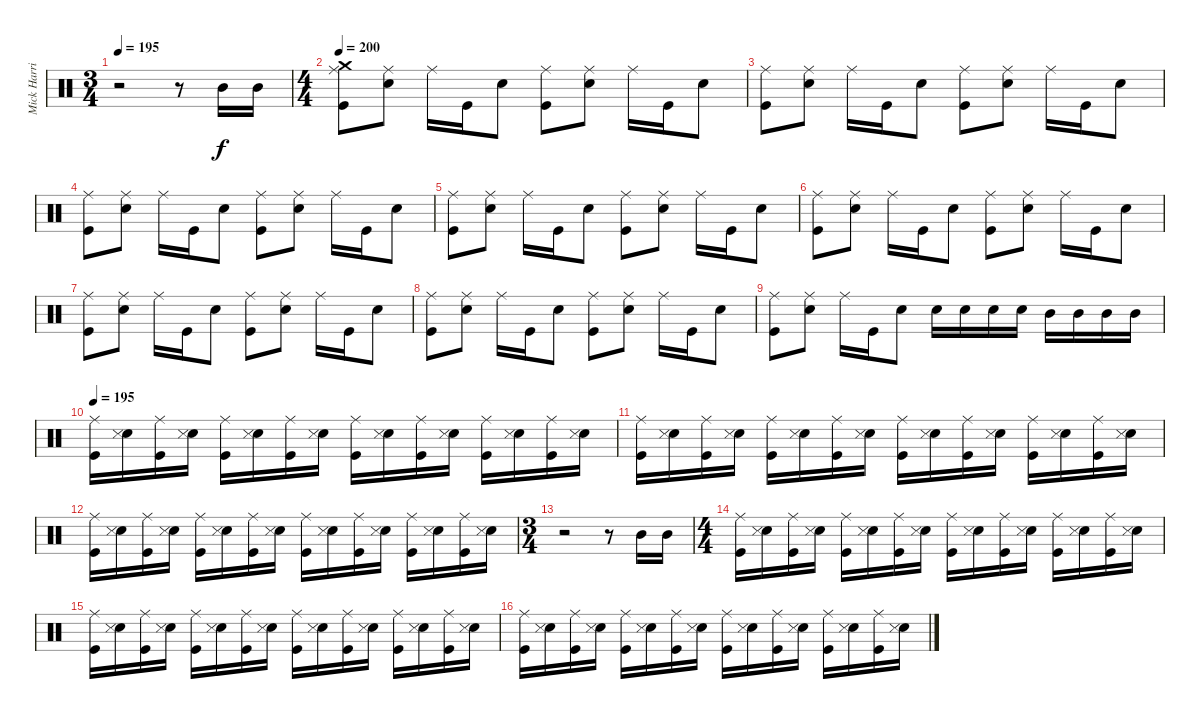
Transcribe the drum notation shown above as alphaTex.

\track ("Mick Harris (Drums)" "Mick Harri") {instrument percussion}
\staff {score}
\articulation defaults
\ts (3 4)
\tempo 195
\clef neutral
\ks c
r.2{dy f} r.8 "Mid Tom (hit)".16 "Mid Tom (hit)".16 |
\ts (4 4)
\tempo 200
("Kick (hit)" "Crash medium (hit)" "Ride (middle)").8 ("Electric Snare (hit)" "Ride (middle)").8 "Ride (middle)".16 "Kick (hit)".16 "Electric Snare (hit)".8 ("Kick (hit)" "Ride (middle)").8 ("Electric Snare (hit)" "Ride (middle)").8 "Ride (middle)".16 "Kick (hit)".16 "Electric Snare (hit)".8 |
("Kick (hit)" "Ride (middle)").8 ("Electric Snare (hit)" "Ride (middle)").8 "Ride (middle)".16 "Kick (hit)".16 "Electric Snare (hit)".8 ("Kick (hit)" "Ride (middle)").8 ("Electric Snare (hit)" "Ride (middle)").8 "Ride (middle)".16 "Kick (hit)".16 "Electric Snare (hit)".8 |
("Kick (hit)" "Ride (middle)").8 ("Electric Snare (hit)" "Ride (middle)").8 "Ride (middle)".16 "Kick (hit)".16 "Electric Snare (hit)".8 ("Kick (hit)" "Ride (middle)").8 ("Electric Snare (hit)" "Ride (middle)").8 "Ride (middle)".16 "Kick (hit)".16 "Electric Snare (hit)".8 |
("Kick (hit)" "Ride (middle)").8 ("Electric Snare (hit)" "Ride (middle)").8 "Ride (middle)".16 "Kick (hit)".16 "Electric Snare (hit)".8 ("Kick (hit)" "Ride (middle)").8 ("Electric Snare (hit)" "Ride (middle)").8 "Ride (middle)".16 "Kick (hit)".16 "Electric Snare (hit)".8 |
("Kick (hit)" "Ride (middle)").8 ("Electric Snare (hit)" "Ride (middle)").8 "Ride (middle)".16 "Kick (hit)".16 "Electric Snare (hit)".8 ("Kick (hit)" "Ride (middle)").8 ("Electric Snare (hit)" "Ride (middle)").8 "Ride (middle)".16 "Kick (hit)".16 "Electric Snare (hit)".8 |
("Kick (hit)" "Ride (middle)").8 ("Electric Snare (hit)" "Ride (middle)").8 "Ride (middle)".16 "Kick (hit)".16 "Electric Snare (hit)".8 ("Kick (hit)" "Ride (middle)").8 ("Electric Snare (hit)" "Ride (middle)").8 "Ride (middle)".16 "Kick (hit)".16 "Electric Snare (hit)".8 |
("Kick (hit)" "Ride (middle)").8 ("Electric Snare (hit)" "Ride (middle)").8 "Ride (middle)".16 "Kick (hit)".16 "Electric Snare (hit)".8 ("Kick (hit)" "Ride (middle)").8 ("Electric Snare (hit)" "Ride (middle)").8 "Ride (middle)".16 "Kick (hit)".16 "Electric Snare (hit)".8 |
("Kick (hit)" "Ride (middle)").8 ("Electric Snare (hit)" "Ride (middle)").8 "Ride (middle)".16 "Kick (hit)".16 "Electric Snare (hit)".8 "Electric Snare (hit)".16 "Electric Snare (hit)".16 "Electric Snare (hit)".16 "Electric Snare (hit)".16 "Mid Tom (hit)".16 "Mid Tom (hit)".16 "Mid Tom (hit)".16 "Mid Tom (hit)".16 |
\tempo 195
("Kick (hit)" "Ride (middle)").16 ("Electric Snare (hit)" "Snare (side stick) 3").16 ("Kick (hit)" "Ride (middle)").16 ("Electric Snare (hit)" "Snare (side stick) 3").16 ("Kick (hit)" "Ride (middle)").16 ("Electric Snare (hit)" "Snare (side stick) 3").16 ("Kick (hit)" "Ride (middle)").16 ("Electric Snare (hit)" "Snare (side stick) 3").16 ("Kick (hit)" "Ride (middle)").16 ("Electric Snare (hit)" "Snare (side stick) 3").16 ("Kick (hit)" "Ride (middle)").16 ("Electric Snare (hit)" "Snare (side stick) 3").16 ("Kick (hit)" "Ride (middle)").16 ("Electric Snare (hit)" "Snare (side stick) 3").16 ("Kick (hit)" "Ride (middle)").16 ("Electric Snare (hit)" "Snare (side stick) 3").16 |
("Kick (hit)" "Ride (middle)").16 ("Electric Snare (hit)" "Snare (side stick) 3").16 ("Kick (hit)" "Ride (middle)").16 ("Electric Snare (hit)" "Snare (side stick) 3").16 ("Kick (hit)" "Ride (middle)").16 ("Electric Snare (hit)" "Snare (side stick) 3").16 ("Kick (hit)" "Ride (middle)").16 ("Electric Snare (hit)" "Snare (side stick) 3").16 ("Kick (hit)" "Ride (middle)").16 ("Electric Snare (hit)" "Snare (side stick) 3").16 ("Kick (hit)" "Ride (middle)").16 ("Electric Snare (hit)" "Snare (side stick) 3").16 ("Kick (hit)" "Ride (middle)").16 ("Electric Snare (hit)" "Snare (side stick) 3").16 ("Kick (hit)" "Ride (middle)").16 ("Electric Snare (hit)" "Snare (side stick) 3").16 |
("Kick (hit)" "Ride (middle)").16 ("Electric Snare (hit)" "Snare (side stick) 3").16 ("Kick (hit)" "Ride (middle)").16 ("Electric Snare (hit)" "Snare (side stick) 3").16 ("Kick (hit)" "Ride (middle)").16 ("Electric Snare (hit)" "Snare (side stick) 3").16 ("Kick (hit)" "Ride (middle)").16 ("Electric Snare (hit)" "Snare (side stick) 3").16 ("Kick (hit)" "Ride (middle)").16 ("Electric Snare (hit)" "Snare (side stick) 3").16 ("Kick (hit)" "Ride (middle)").16 ("Electric Snare (hit)" "Snare (side stick) 3").16 ("Kick (hit)" "Ride (middle)").16 ("Electric Snare (hit)" "Snare (side stick) 3").16 ("Kick (hit)" "Ride (middle)").16 ("Electric Snare (hit)" "Snare (side stick) 3").16 |
\ts (3 4)
r.2 r.8 "Mid Tom (hit)".16 "Mid Tom (hit)".16 |
\ts (4 4)
("Kick (hit)" "Ride (middle)").16 ("Electric Snare (hit)" "Snare (side stick) 3").16 ("Kick (hit)" "Ride (middle)").16 ("Electric Snare (hit)" "Snare (side stick) 3").16 ("Kick (hit)" "Ride (middle)").16 ("Electric Snare (hit)" "Snare (side stick) 3").16 ("Kick (hit)" "Ride (middle)").16 ("Electric Snare (hit)" "Snare (side stick) 3").16 ("Kick (hit)" "Ride (middle)").16 ("Electric Snare (hit)" "Snare (side stick) 3").16 ("Kick (hit)" "Ride (middle)").16 ("Electric Snare (hit)" "Snare (side stick) 3").16 ("Kick (hit)" "Ride (middle)").16 ("Electric Snare (hit)" "Snare (side stick) 3").16 ("Kick (hit)" "Ride (middle)").16 ("Electric Snare (hit)" "Snare (side stick) 3").16 |
("Kick (hit)" "Ride (middle)").16 ("Electric Snare (hit)" "Snare (side stick) 3").16 ("Kick (hit)" "Ride (middle)").16 ("Electric Snare (hit)" "Snare (side stick) 3").16 ("Kick (hit)" "Ride (middle)").16 ("Electric Snare (hit)" "Snare (side stick) 3").16 ("Kick (hit)" "Ride (middle)").16 ("Electric Snare (hit)" "Snare (side stick) 3").16 ("Kick (hit)" "Ride (middle)").16 ("Electric Snare (hit)" "Snare (side stick) 3").16 ("Kick (hit)" "Ride (middle)").16 ("Electric Snare (hit)" "Snare (side stick) 3").16 ("Kick (hit)" "Ride (middle)").16 ("Electric Snare (hit)" "Snare (side stick) 3").16 ("Kick (hit)" "Ride (middle)").16 ("Electric Snare (hit)" "Snare (side stick) 3").16 |
("Kick (hit)" "Ride (middle)").16 ("Electric Snare (hit)" "Snare (side stick) 3").16 ("Kick (hit)" "Ride (middle)").16 ("Electric Snare (hit)" "Snare (side stick) 3").16 ("Kick (hit)" "Ride (middle)").16 ("Electric Snare (hit)" "Snare (side stick) 3").16 ("Kick (hit)" "Ride (middle)").16 ("Electric Snare (hit)" "Snare (side stick) 3").16 ("Kick (hit)" "Ride (middle)").16 ("Electric Snare (hit)" "Snare (side stick) 3").16 ("Kick (hit)" "Ride (middle)").16 ("Electric Snare (hit)" "Snare (side stick) 3").16 ("Kick (hit)" "Ride (middle)").16 ("Electric Snare (hit)" "Snare (side stick) 3").16 ("Kick (hit)" "Ride (middle)").16 ("Electric Snare (hit)" "Snare (side stick) 3").16
